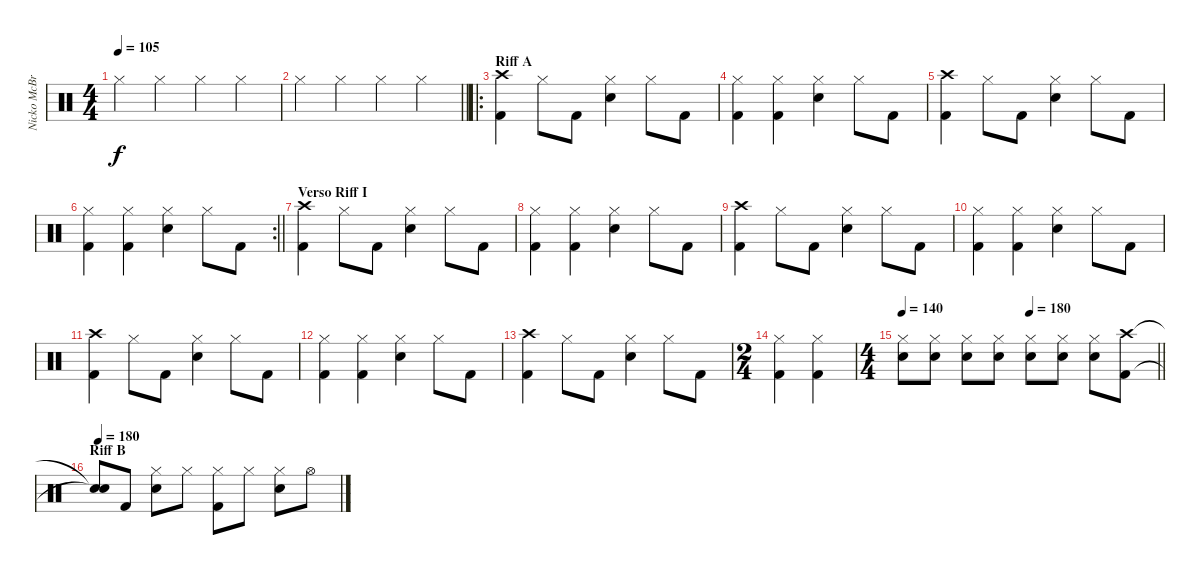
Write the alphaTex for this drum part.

\track ("Nicko McBrain" "Nicko McBr") {instrument percussion}
\staff {score}
\articulation defaults
\ts (4 4)
\tempo 105
\clef neutral
\ks c "Hi-Hat (closed)".4{dy f} "Hi-Hat (closed)".4 "Hi-Hat (closed)".4 "Hi-Hat (closed)".4
|
\barLineRight lightlight "Hi-Hat (closed)".4 "Hi-Hat (closed)".4 "Hi-Hat (closed)".4 "Hi-Hat (closed)".4
|
\ro
\section ("" "Riff A")
("Kick (hit) 2" "Crash high (hit)").4 "Hi-Hat (closed)".8 "Kick (hit) 2".8 ("Snare (hit) 2" "Hi-Hat (closed)").4 "Hi-Hat (closed)".8 "Kick (hit) 2".8 |
("Kick (hit) 2" "Hi-Hat (closed)").4 ("Kick (hit) 2" "Hi-Hat (closed)").4 ("Snare (hit) 2" "Hi-Hat (closed)").4 "Hi-Hat (closed)".8 "Kick (hit) 2".8 |
("Kick (hit) 2" "Crash high (hit)").4 "Hi-Hat (closed)".8 "Kick (hit) 2".8 ("Snare (hit) 2" "Hi-Hat (closed)").4 "Hi-Hat (closed)".8 "Kick (hit) 2".8 |
\rc 2
\barLineRight lightlight
("Kick (hit) 2" "Hi-Hat (closed)").4 ("Kick (hit) 2" "Hi-Hat (closed)").4 ("Snare (hit) 2" "Hi-Hat (closed)").4 "Hi-Hat (closed)".8 "Kick (hit) 2".8 |
\section ("" "Verso Riff I")
("Kick (hit) 2" "Crash high (hit)").4 "Hi-Hat (closed)".8 "Kick (hit) 2".8 ("Snare (hit) 2" "Hi-Hat (closed)").4 "Hi-Hat (closed)".8 "Kick (hit) 2".8 |
("Kick (hit) 2" "Hi-Hat (closed)").4 ("Kick (hit) 2" "Hi-Hat (closed)").4 ("Snare (hit) 2" "Hi-Hat (closed)").4 "Hi-Hat (closed)".8 "Kick (hit) 2".8 |
("Kick (hit) 2" "Crash high (hit)").4 "Hi-Hat (closed)".8 "Kick (hit) 2".8 ("Snare (hit) 2" "Hi-Hat (closed)").4 "Hi-Hat (closed)".8 "Kick (hit) 2".8 |
("Kick (hit) 2" "Hi-Hat (closed)").4 ("Kick (hit) 2" "Hi-Hat (closed)").4 ("Snare (hit) 2" "Hi-Hat (closed)").4 "Hi-Hat (closed)".8 "Kick (hit) 2".8 |
("Kick (hit) 2" "Crash high (hit)").4 "Hi-Hat (closed)".8 "Kick (hit) 2".8 ("Snare (hit) 2" "Hi-Hat (closed)").4 "Hi-Hat (closed)".8 "Kick (hit) 2".8 |
("Kick (hit) 2" "Hi-Hat (closed)").4 ("Kick (hit) 2" "Hi-Hat (closed)").4 ("Snare (hit) 2" "Hi-Hat (closed)").4 "Hi-Hat (closed)".8 "Kick (hit) 2".8 |
("Kick (hit) 2" "Crash high (hit)").4 "Hi-Hat (closed)".8 "Kick (hit) 2".8 ("Snare (hit) 2" "Hi-Hat (closed)").4 "Hi-Hat (closed)".8 "Kick (hit) 2".8 |
\ts (2 4)
("Kick (hit) 2" "Hi-Hat (closed)").4 ("Kick (hit) 2" "Hi-Hat (closed)").4 |
\ts (4 4)
\tempo 140
\tempo (180 0.5)
\barLineRight lightlight
("Hi-Hat (closed)" "Snare (hit) 2").8 ("Hi-Hat (closed)" "Snare (hit) 2").8 ("Hi-Hat (closed)" "Snare (hit) 2").8 ("Hi-Hat (closed)" "Snare (hit) 2").8 ("Hi-Hat (closed)" "Snare (hit) 2").8 ("Hi-Hat (closed)" "Snare (hit) 2").8 ("Hi-Hat (closed)" "Snare (hit) 2").8 ("Crash high (hit)" "Kick (hit) 2").8 |
\section ("" "Riff B")
\tempo 180
("Snare (hit)"{t} "Snare (hit)"{t}).8 "Kick (hit) 2".8 ("Snare (hit) 2" "Hi-Hat (closed)").8 "Hi-Hat (closed)".8 ("Kick (hit) 2" "Hi-Hat (closed)").8 "Hi-Hat (closed)".8 ("Snare (hit) 2" "Hi-Hat (closed)").8 "Hi-Hat (open)".8
